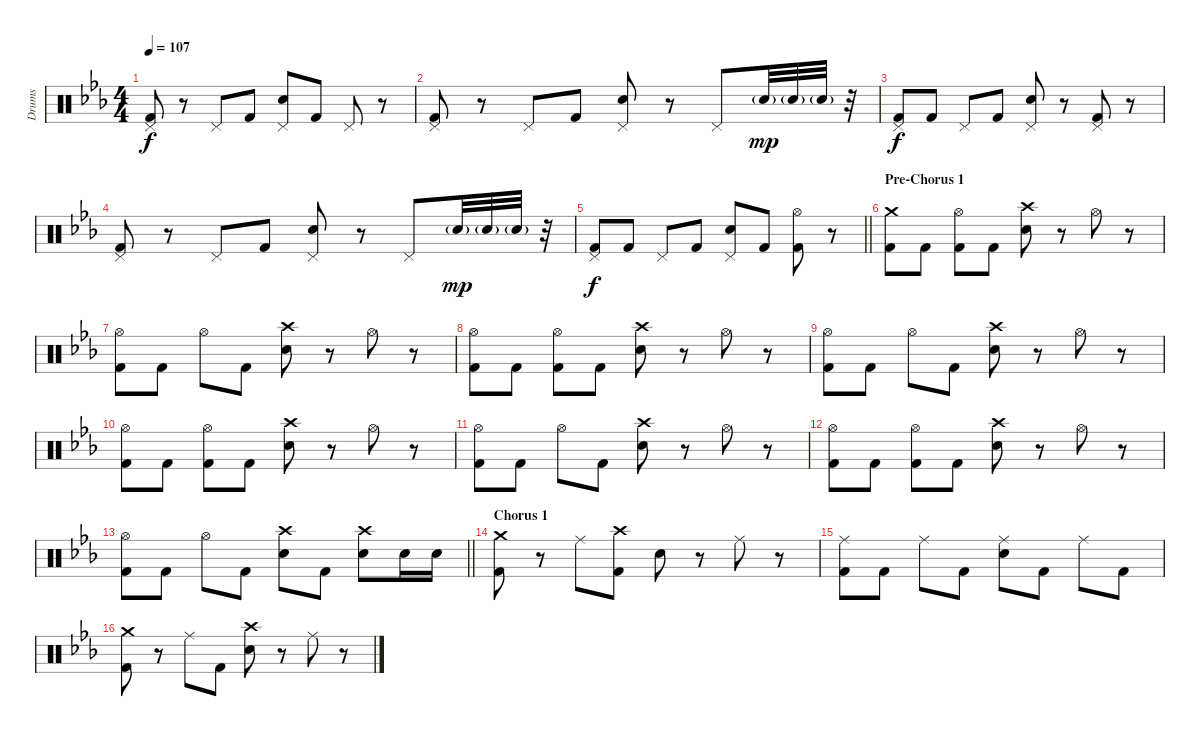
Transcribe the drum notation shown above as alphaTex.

\track ("Drums" "Drums") {instrument percussion}
\staff {score}
\articulation defaults
\ts (4 4)
\tempo 107
\clef neutral
\ks cminor
("Pedal Hi-Hat (hit)" "Kick (hit) 2").8{dy f} r.8 "Pedal Hi-Hat (hit)".8 "Kick (hit) 2".8 ("Pedal Hi-Hat (hit)" "Electric Snare (hit)").8 "Kick (hit) 2".8 "Pedal Hi-Hat (hit)".8 r.8 |
("Pedal Hi-Hat (hit)" "Kick (hit) 2").8 r.8 "Pedal Hi-Hat (hit)".8 "Kick (hit) 2".8 ("Pedal Hi-Hat (hit)" "Electric Snare (hit)").8 r.8 "Pedal Hi-Hat (hit)".8 "Electric Snare (hit)"{g}.32{dy mp} "Electric Snare (hit)"{g}.32 "Electric Snare (hit)"{g}.32 r.32 |
("Pedal Hi-Hat (hit)" "Kick (hit) 2").8{dy f} "Kick (hit) 2".8 "Pedal Hi-Hat (hit)".8 "Kick (hit) 2".8 ("Pedal Hi-Hat (hit)" "Electric Snare (hit)").8 r.8 ("Pedal Hi-Hat (hit)" "Kick (hit) 2").8 r.8 |
("Pedal Hi-Hat (hit)" "Kick (hit) 2").8 r.8 "Pedal Hi-Hat (hit)".8 "Kick (hit) 2".8 ("Pedal Hi-Hat (hit)" "Electric Snare (hit)").8 r.8 "Pedal Hi-Hat (hit)".8 "Electric Snare (hit)"{g}.32{dy mp} "Electric Snare (hit)"{g}.32 "Electric Snare (hit)"{g}.32 r.32 |
\barLineRight lightlight
("Pedal Hi-Hat (hit)" "Kick (hit) 2").8{dy f} "Kick (hit) 2".8 "Pedal Hi-Hat (hit)".8 "Kick (hit) 2".8 ("Pedal Hi-Hat (hit)" "Electric Snare (hit)").8 "Kick (hit) 2".8 ("Hi-Hat (open)" "Kick (hit) 2").8 r.8 |
\section ("" "Pre-Chorus 1")
("Crash medium (hit)" "Kick (hit) 2").8 "Kick (hit) 2".8 ("Hi-Hat (open)" "Kick (hit) 2").8 "Kick (hit) 2".8 ("Crash high (hit)" "Electric Snare (hit)").8 r.8 "Hi-Hat (open)".8 r.8 |
("Hi-Hat (open)" "Kick (hit) 2").8 "Kick (hit) 2".8 "Hi-Hat (open)".8 "Kick (hit) 2".8 ("Crash high (hit)" "Electric Snare (hit)").8 r.8 "Hi-Hat (open)".8 r.8 |
("Hi-Hat (open)" "Kick (hit) 2").8 "Kick (hit) 2".8 ("Hi-Hat (open)" "Kick (hit) 2").8 "Kick (hit) 2".8 ("Crash high (hit)" "Electric Snare (hit)").8 r.8 "Hi-Hat (open)".8 r.8 |
("Hi-Hat (open)" "Kick (hit) 2").8 "Kick (hit) 2".8 "Hi-Hat (open)".8 "Kick (hit) 2".8 ("Crash high (hit)" "Electric Snare (hit)").8 r.8 "Hi-Hat (open)".8 r.8 |
("Hi-Hat (open)" "Kick (hit) 2").8 "Kick (hit) 2".8 ("Hi-Hat (open)" "Kick (hit) 2").8 "Kick (hit) 2".8 ("Crash high (hit)" "Electric Snare (hit)").8 r.8 "Hi-Hat (open)".8 r.8 |
("Hi-Hat (open)" "Kick (hit) 2").8 "Kick (hit) 2".8 "Hi-Hat (open)".8 "Kick (hit) 2".8 ("Crash high (hit)" "Electric Snare (hit)").8 r.8 "Hi-Hat (open)".8 r.8 |
("Hi-Hat (open)" "Kick (hit) 2").8 "Kick (hit) 2".8 ("Hi-Hat (open)" "Kick (hit) 2").8 "Kick (hit) 2".8 ("Crash high (hit)" "Electric Snare (hit)").8 r.8 "Hi-Hat (open)".8 r.8 |
\barLineRight lightlight
("Hi-Hat (open)" "Kick (hit) 2").8 "Kick (hit) 2".8 "Hi-Hat (open)".8 "Kick (hit) 2".8 ("Crash high (hit)" "Electric Snare (hit)").8 "Kick (hit) 2".8 ("Crash high (hit)" "Electric Snare (hit)").8 "Electric Snare (hit)".16 "Electric Snare (hit)".16 |
\section ("" "Chorus 1")
("Crash medium (hit)" "Kick (hit) 2").8 r.8 "Ride (middle)".8 ("Crash high (hit)" "Kick (hit) 2").8 "Electric Snare (hit)".8 r.8 "Ride (middle)".8 r.8 |
("Ride (middle)" "Kick (hit) 2").8 "Kick (hit) 2".8 "Ride (middle)".8 "Kick (hit) 2".8 ("Ride (middle)" "Electric Snare (hit)").8 "Kick (hit) 2".8 "Ride (middle)".8 "Kick (hit) 2".8 |
("Crash medium (hit)" "Kick (hit) 2").8 r.8 "Ride (middle)".8 "Kick (hit) 2".8 ("Crash high (hit)" "Electric Snare (hit)").8 r.8 "Ride (middle)".8 r.8
